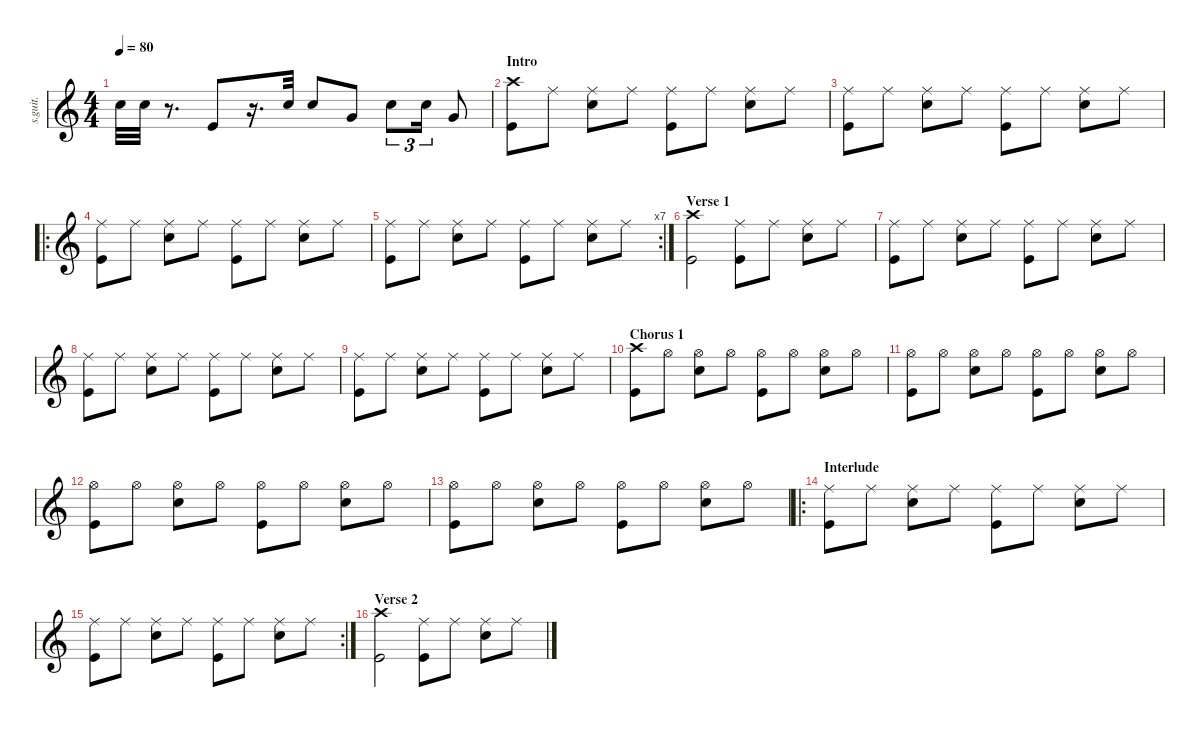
\defaultSystemsLayout 4
\hideDynamics
\bracketExtendMode nobrackets
\track ("Drums (Wilson)" "s.guit.") {instrument percussion}
\staff {score}
\articulation defaults
\ts (4 4)
\beaming (8 2 2 2 2)
\tempo 80
\clef g2
\ks c "Snare (hit) 2".32{lyrics (0 "") lyrics (1 "") lyrics (2 "") lyrics (3 "") lyrics (4 "") dy f} "Snare (hit) 2".32{lyrics (0 "") lyrics (1 "") lyrics (2 "") lyrics (3 "") lyrics (4 "")}
r.8{d} "Kick (hit)".8{lyrics (0 "") lyrics (1 "") lyrics (2 "") lyrics (3 "") lyrics (4 "") dy mf} r.16{d} "Snare (hit) 2".32{lyrics (0 "") lyrics (1 "") lyrics (2 "") lyrics (3 "") lyrics (4 "") dy f} "Snare (hit) 2".8{lyrics (0 "") lyrics (1 "") lyrics (2 "") lyrics (3 "") lyrics (4 "")} "Very Low Tom (hit)".8{lyrics (0 "") lyrics (1 "") lyrics (2 "") lyrics (3 "") lyrics (4 "")} "Snare (hit) 2".8{tu (3 2) lyrics (0 "") lyrics (1 "") lyrics (2 "") lyrics (3 "") lyrics (4 "")} "Snare (hit) 2".16{tu (3 2) lyrics (0 "") lyrics (1 "") lyrics (2 "") lyrics (3 "") lyrics (4 "")} "Very Low Tom (hit)".8{lyrics (0 "") lyrics (1 "") lyrics (2 "") lyrics (3 "") lyrics (4 "")} |
\section ("" "Intro")
("Crash high (hit)" "Kick (hit)").8{lyrics (0 "") lyrics (1 "") lyrics (2 "") lyrics (3 "") lyrics (4 "")} "Ride (middle)".8{lyrics (0 "") lyrics (1 "") lyrics (2 "") lyrics (3 "") lyrics (4 "")} ("Ride (middle)" "Snare (hit) 2").8{lyrics (0 "") lyrics (1 "") lyrics (2 "") lyrics (3 "") lyrics (4 "")} "Ride (middle)".8{lyrics (0 "") lyrics (1 "") lyrics (2 "") lyrics (3 "") lyrics (4 "")} ("Ride (middle)" "Kick (hit)").8{lyrics (0 "") lyrics (1 "") lyrics (2 "") lyrics (3 "") lyrics (4 "")} "Ride (middle)".8{lyrics (0 "") lyrics (1 "") lyrics (2 "") lyrics (3 "") lyrics (4 "")} ("Ride (middle)" "Snare (hit) 2").8{lyrics (0 "") lyrics (1 "") lyrics (2 "") lyrics (3 "") lyrics (4 "")} "Ride (middle)".8{lyrics (0 "") lyrics (1 "") lyrics (2 "") lyrics (3 "") lyrics (4 "")} |
("Ride (middle)" "Kick (hit)").8{lyrics (0 "") lyrics (1 "") lyrics (2 "") lyrics (3 "") lyrics (4 "")} "Ride (middle)".8{lyrics (0 "") lyrics (1 "") lyrics (2 "") lyrics (3 "") lyrics (4 "")} ("Ride (middle)" "Snare (hit) 2").8{lyrics (0 "") lyrics (1 "") lyrics (2 "") lyrics (3 "") lyrics (4 "")} "Ride (middle)".8{lyrics (0 "") lyrics (1 "") lyrics (2 "") lyrics (3 "") lyrics (4 "")} ("Ride (middle)" "Kick (hit)").8{lyrics (0 "") lyrics (1 "") lyrics (2 "") lyrics (3 "") lyrics (4 "")} "Ride (middle)".8{lyrics (0 "") lyrics (1 "") lyrics (2 "") lyrics (3 "") lyrics (4 "")} ("Ride (middle)" "Snare (hit) 2").8{lyrics (0 "") lyrics (1 "") lyrics (2 "") lyrics (3 "") lyrics (4 "")} "Ride (middle)".8{lyrics (0 "") lyrics (1 "") lyrics (2 "") lyrics (3 "") lyrics (4 "")} |
\ro
("Ride (middle)" "Kick (hit)").8{lyrics (0 "") lyrics (1 "") lyrics (2 "") lyrics (3 "") lyrics (4 "")} "Ride (middle)".8{lyrics (0 "") lyrics (1 "") lyrics (2 "") lyrics (3 "") lyrics (4 "")} ("Ride (middle)" "Snare (hit) 2").8{lyrics (0 "") lyrics (1 "") lyrics (2 "") lyrics (3 "") lyrics (4 "")} "Ride (middle)".8{lyrics (0 "") lyrics (1 "") lyrics (2 "") lyrics (3 "") lyrics (4 "")} ("Ride (middle)" "Kick (hit)").8{lyrics (0 "") lyrics (1 "") lyrics (2 "") lyrics (3 "") lyrics (4 "")} "Ride (middle)".8{lyrics (0 "") lyrics (1 "") lyrics (2 "") lyrics (3 "") lyrics (4 "")} ("Ride (middle)" "Snare (hit) 2").8{lyrics (0 "") lyrics (1 "") lyrics (2 "") lyrics (3 "") lyrics (4 "")} "Ride (middle)".8{lyrics (0 "") lyrics (1 "") lyrics (2 "") lyrics (3 "") lyrics (4 "")} |
\rc 7
("Ride (middle)" "Kick (hit)").8{lyrics (0 "") lyrics (1 "") lyrics (2 "") lyrics (3 "") lyrics (4 "")} "Ride (middle)".8{lyrics (0 "") lyrics (1 "") lyrics (2 "") lyrics (3 "") lyrics (4 "")} ("Ride (middle)" "Snare (hit) 2").8{lyrics (0 "") lyrics (1 "") lyrics (2 "") lyrics (3 "") lyrics (4 "")} "Ride (middle)".8{lyrics (0 "") lyrics (1 "") lyrics (2 "") lyrics (3 "") lyrics (4 "")} ("Ride (middle)" "Kick (hit)").8{lyrics (0 "") lyrics (1 "") lyrics (2 "") lyrics (3 "") lyrics (4 "")} "Ride (middle)".8{lyrics (0 "") lyrics (1 "") lyrics (2 "") lyrics (3 "") lyrics (4 "")} ("Ride (middle)" "Snare (hit) 2").8{lyrics (0 "") lyrics (1 "") lyrics (2 "") lyrics (3 "") lyrics (4 "")} "Ride (middle)".8{lyrics (0 "") lyrics (1 "") lyrics (2 "") lyrics (3 "") lyrics (4 "")} |
\section ("" "Verse 1")
("Crash high (hit)" "Kick (hit)").2{lyrics (0 "") lyrics (1 "") lyrics (2 "") lyrics (3 "") lyrics (4 "")} ("Ride (middle)" "Kick (hit)").8{lyrics (0 "") lyrics (1 "") lyrics (2 "") lyrics (3 "") lyrics (4 "")} "Ride (middle)".8{lyrics (0 "") lyrics (1 "") lyrics (2 "") lyrics (3 "") lyrics (4 "")} ("Ride (middle)" "Snare (hit) 2").8{lyrics (0 "") lyrics (1 "") lyrics (2 "") lyrics (3 "") lyrics (4 "")} "Ride (middle)".8{lyrics (0 "") lyrics (1 "") lyrics (2 "") lyrics (3 "") lyrics (4 "")} |
("Ride (middle)" "Kick (hit)").8{lyrics (0 "") lyrics (1 "") lyrics (2 "") lyrics (3 "") lyrics (4 "")} "Ride (middle)".8{lyrics (0 "") lyrics (1 "") lyrics (2 "") lyrics (3 "") lyrics (4 "")} ("Ride (middle)" "Snare (hit) 2").8{lyrics (0 "") lyrics (1 "") lyrics (2 "") lyrics (3 "") lyrics (4 "")} "Ride (middle)".8{lyrics (0 "") lyrics (1 "") lyrics (2 "") lyrics (3 "") lyrics (4 "")} ("Ride (middle)" "Kick (hit)").8{lyrics (0 "") lyrics (1 "") lyrics (2 "") lyrics (3 "") lyrics (4 "")} "Ride (middle)".8{lyrics (0 "") lyrics (1 "") lyrics (2 "") lyrics (3 "") lyrics (4 "")} ("Ride (middle)" "Snare (hit) 2").8{lyrics (0 "") lyrics (1 "") lyrics (2 "") lyrics (3 "") lyrics (4 "")} "Ride (middle)".8{lyrics (0 "") lyrics (1 "") lyrics (2 "") lyrics (3 "") lyrics (4 "")} |
("Ride (middle)" "Kick (hit)").8{lyrics (0 "") lyrics (1 "") lyrics (2 "") lyrics (3 "") lyrics (4 "")} "Ride (middle)".8{lyrics (0 "") lyrics (1 "") lyrics (2 "") lyrics (3 "") lyrics (4 "")} ("Ride (middle)" "Snare (hit) 2").8{lyrics (0 "") lyrics (1 "") lyrics (2 "") lyrics (3 "") lyrics (4 "")} "Ride (middle)".8{lyrics (0 "") lyrics (1 "") lyrics (2 "") lyrics (3 "") lyrics (4 "")} ("Ride (middle)" "Kick (hit)").8{lyrics (0 "") lyrics (1 "") lyrics (2 "") lyrics (3 "") lyrics (4 "")} "Ride (middle)".8{lyrics (0 "") lyrics (1 "") lyrics (2 "") lyrics (3 "") lyrics (4 "")} ("Ride (middle)" "Snare (hit) 2").8{lyrics (0 "") lyrics (1 "") lyrics (2 "") lyrics (3 "") lyrics (4 "")} "Ride (middle)".8{lyrics (0 "") lyrics (1 "") lyrics (2 "") lyrics (3 "") lyrics (4 "")} |
("Ride (middle)" "Kick (hit)").8{lyrics (0 "") lyrics (1 "") lyrics (2 "") lyrics (3 "") lyrics (4 "")} "Ride (middle)".8{lyrics (0 "") lyrics (1 "") lyrics (2 "") lyrics (3 "") lyrics (4 "")} ("Ride (middle)" "Snare (hit) 2").8{lyrics (0 "") lyrics (1 "") lyrics (2 "") lyrics (3 "") lyrics (4 "")} "Ride (middle)".8{lyrics (0 "") lyrics (1 "") lyrics (2 "") lyrics (3 "") lyrics (4 "")} ("Ride (middle)" "Kick (hit)").8{lyrics (0 "") lyrics (1 "") lyrics (2 "") lyrics (3 "") lyrics (4 "")} "Ride (middle)".8{lyrics (0 "") lyrics (1 "") lyrics (2 "") lyrics (3 "") lyrics (4 "")} ("Ride (middle)" "Snare (hit) 2").8{lyrics (0 "") lyrics (1 "") lyrics (2 "") lyrics (3 "") lyrics (4 "")} "Ride (middle)".8{lyrics (0 "") lyrics (1 "") lyrics (2 "") lyrics (3 "") lyrics (4 "")} |
\section ("" "Chorus 1")
("Crash high (hit)" "Kick (hit)").8{lyrics (0 "") lyrics (1 "") lyrics (2 "") lyrics (3 "") lyrics (4 "")} "Hi-Hat (open)".8{lyrics (0 "") lyrics (1 "") lyrics (2 "") lyrics (3 "") lyrics (4 "")} ("Hi-Hat (open)" "Snare (hit) 2").8{lyrics (0 "") lyrics (1 "") lyrics (2 "") lyrics (3 "") lyrics (4 "")} "Hi-Hat (open)".8{lyrics (0 "") lyrics (1 "") lyrics (2 "") lyrics (3 "") lyrics (4 "")} ("Hi-Hat (open)" "Kick (hit)").8{lyrics (0 "") lyrics (1 "") lyrics (2 "") lyrics (3 "") lyrics (4 "")} "Hi-Hat (open)".8{lyrics (0 "") lyrics (1 "") lyrics (2 "") lyrics (3 "") lyrics (4 "")} ("Hi-Hat (open)" "Snare (hit) 2").8{lyrics (0 "") lyrics (1 "") lyrics (2 "") lyrics (3 "") lyrics (4 "")} "Hi-Hat (open)".8{lyrics (0 "") lyrics (1 "") lyrics (2 "") lyrics (3 "") lyrics (4 "")} |
("Hi-Hat (open)" "Kick (hit)").8{lyrics (0 "") lyrics (1 "") lyrics (2 "") lyrics (3 "") lyrics (4 "")} "Hi-Hat (open)".8{lyrics (0 "") lyrics (1 "") lyrics (2 "") lyrics (3 "") lyrics (4 "")} ("Hi-Hat (open)" "Snare (hit) 2").8{lyrics (0 "") lyrics (1 "") lyrics (2 "") lyrics (3 "") lyrics (4 "")} "Hi-Hat (open)".8{lyrics (0 "") lyrics (1 "") lyrics (2 "") lyrics (3 "") lyrics (4 "")} ("Hi-Hat (open)" "Kick (hit)").8{lyrics (0 "") lyrics (1 "") lyrics (2 "") lyrics (3 "") lyrics (4 "")} "Hi-Hat (open)".8{lyrics (0 "") lyrics (1 "") lyrics (2 "") lyrics (3 "") lyrics (4 "")} ("Hi-Hat (open)" "Snare (hit) 2").8{lyrics (0 "") lyrics (1 "") lyrics (2 "") lyrics (3 "") lyrics (4 "")} "Hi-Hat (open)".8{lyrics (0 "") lyrics (1 "") lyrics (2 "") lyrics (3 "") lyrics (4 "")} |
("Hi-Hat (open)" "Kick (hit)").8{lyrics (0 "") lyrics (1 "") lyrics (2 "") lyrics (3 "") lyrics (4 "")} "Hi-Hat (open)".8{lyrics (0 "") lyrics (1 "") lyrics (2 "") lyrics (3 "") lyrics (4 "")} ("Hi-Hat (open)" "Snare (hit) 2").8{lyrics (0 "") lyrics (1 "") lyrics (2 "") lyrics (3 "") lyrics (4 "")} "Hi-Hat (open)".8{lyrics (0 "") lyrics (1 "") lyrics (2 "") lyrics (3 "") lyrics (4 "")} ("Hi-Hat (open)" "Kick (hit)").8{lyrics (0 "") lyrics (1 "") lyrics (2 "") lyrics (3 "") lyrics (4 "")} "Hi-Hat (open)".8{lyrics (0 "") lyrics (1 "") lyrics (2 "") lyrics (3 "") lyrics (4 "")} ("Hi-Hat (open)" "Snare (hit) 2").8{lyrics (0 "") lyrics (1 "") lyrics (2 "") lyrics (3 "") lyrics (4 "")} "Hi-Hat (open)".8{lyrics (0 "") lyrics (1 "") lyrics (2 "") lyrics (3 "") lyrics (4 "")} |
("Hi-Hat (open)" "Kick (hit)").8{lyrics (0 "") lyrics (1 "") lyrics (2 "") lyrics (3 "") lyrics (4 "")} "Hi-Hat (open)".8{lyrics (0 "") lyrics (1 "") lyrics (2 "") lyrics (3 "") lyrics (4 "")} ("Hi-Hat (open)" "Snare (hit) 2").8{lyrics (0 "") lyrics (1 "") lyrics (2 "") lyrics (3 "") lyrics (4 "")} "Hi-Hat (open)".8{lyrics (0 "") lyrics (1 "") lyrics (2 "") lyrics (3 "") lyrics (4 "")} ("Hi-Hat (open)" "Kick (hit)").8{lyrics (0 "") lyrics (1 "") lyrics (2 "") lyrics (3 "") lyrics (4 "")} "Hi-Hat (open)".8{lyrics (0 "") lyrics (1 "") lyrics (2 "") lyrics (3 "") lyrics (4 "")} ("Hi-Hat (open)" "Snare (hit) 2").8{lyrics (0 "") lyrics (1 "") lyrics (2 "") lyrics (3 "") lyrics (4 "")} "Hi-Hat (open)".8{lyrics (0 "") lyrics (1 "") lyrics (2 "") lyrics (3 "") lyrics (4 "")} |
\ro
\section ("" "Interlude")
("Ride (middle)" "Kick (hit)").8{lyrics (0 "") lyrics (1 "") lyrics (2 "") lyrics (3 "") lyrics (4 "")} "Ride (middle)".8{lyrics (0 "") lyrics (1 "") lyrics (2 "") lyrics (3 "") lyrics (4 "")} ("Ride (middle)" "Snare (hit) 2").8{lyrics (0 "") lyrics (1 "") lyrics (2 "") lyrics (3 "") lyrics (4 "")} "Ride (middle)".8{lyrics (0 "") lyrics (1 "") lyrics (2 "") lyrics (3 "") lyrics (4 "")} ("Ride (middle)" "Kick (hit)").8{lyrics (0 "") lyrics (1 "") lyrics (2 "") lyrics (3 "") lyrics (4 "")} "Ride (middle)".8{lyrics (0 "") lyrics (1 "") lyrics (2 "") lyrics (3 "") lyrics (4 "")} ("Ride (middle)" "Snare (hit) 2").8{lyrics (0 "") lyrics (1 "") lyrics (2 "") lyrics (3 "") lyrics (4 "")} "Ride (middle)".8{lyrics (0 "") lyrics (1 "") lyrics (2 "") lyrics (3 "") lyrics (4 "")} |
\rc 2
("Ride (middle)" "Kick (hit)").8{lyrics (0 "") lyrics (1 "") lyrics (2 "") lyrics (3 "") lyrics (4 "")} "Ride (middle)".8{lyrics (0 "") lyrics (1 "") lyrics (2 "") lyrics (3 "") lyrics (4 "")} ("Ride (middle)" "Snare (hit) 2").8{lyrics (0 "") lyrics (1 "") lyrics (2 "") lyrics (3 "") lyrics (4 "")} "Ride (middle)".8{lyrics (0 "") lyrics (1 "") lyrics (2 "") lyrics (3 "") lyrics (4 "")} ("Ride (middle)" "Kick (hit)").8{lyrics (0 "") lyrics (1 "") lyrics (2 "") lyrics (3 "") lyrics (4 "")} "Ride (middle)".8{lyrics (0 "") lyrics (1 "") lyrics (2 "") lyrics (3 "") lyrics (4 "")} ("Ride (middle)" "Snare (hit) 2").8{lyrics (0 "") lyrics (1 "") lyrics (2 "") lyrics (3 "") lyrics (4 "")} "Ride (middle)".8{lyrics (0 "") lyrics (1 "") lyrics (2 "") lyrics (3 "") lyrics (4 "")} |
\section ("" "Verse 2")
("Crash high (hit)" "Kick (hit)").2{lyrics (0 "") lyrics (1 "") lyrics (2 "") lyrics (3 "") lyrics (4 "")} ("Ride (middle)" "Kick (hit)").8{lyrics (0 "") lyrics (1 "") lyrics (2 "") lyrics (3 "") lyrics (4 "")} "Ride (middle)".8{lyrics (0 "") lyrics (1 "") lyrics (2 "") lyrics (3 "") lyrics (4 "")} ("Ride (middle)" "Snare (hit) 2").8{lyrics (0 "") lyrics (1 "") lyrics (2 "") lyrics (3 "") lyrics (4 "")} "Ride (middle)".8{lyrics (0 "") lyrics (1 "") lyrics (2 "") lyrics (3 "") lyrics (4 "")}
